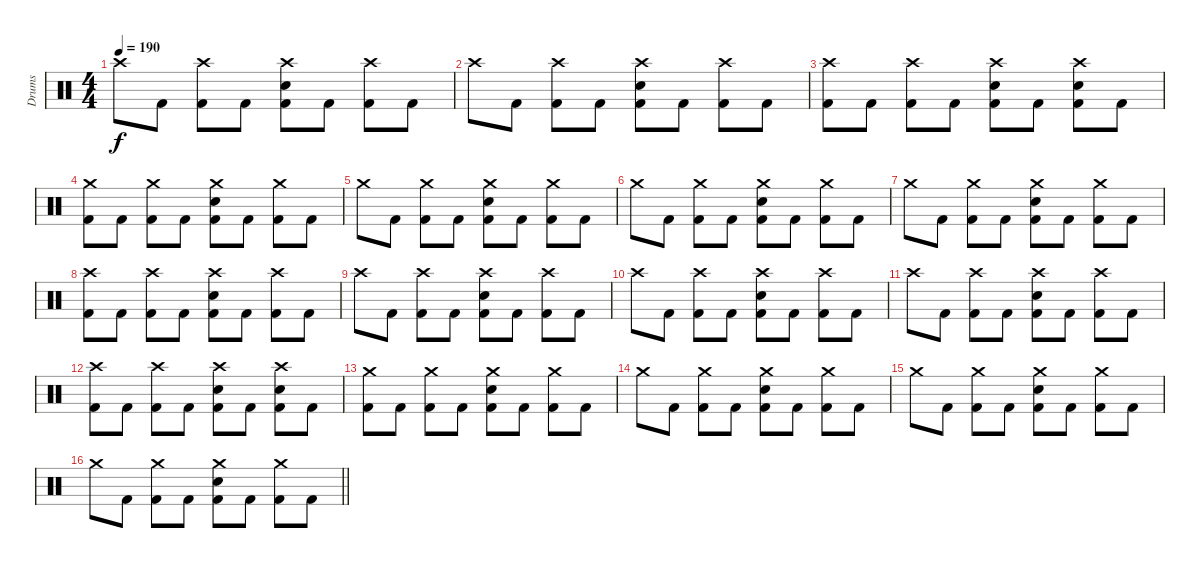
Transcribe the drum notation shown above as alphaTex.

\track ("Drums" "Drums") {instrument percussion}
\staff {score}
\articulation defaults
\ts (4 4)
\tempo 190
\clef neutral
\ks c "Crash high (hit)".8{dy f} "Kick (hit) 2".8
("Crash high (hit)" "Kick (hit) 2").8 "Kick (hit) 2".8 ("Crash high (hit)" "Electric Snare (hit)" "Kick (hit) 2").8 "Kick (hit) 2".8 ("Crash high (hit)" "Kick (hit) 2").8 "Kick (hit) 2".8 |
"Crash high (hit)".8 "Kick (hit) 2".8 ("Crash high (hit)" "Kick (hit) 2").8 "Kick (hit) 2".8 ("Crash high (hit)" "Electric Snare (hit)" "Kick (hit) 2").8 "Kick (hit) 2".8 ("Crash high (hit)" "Kick (hit) 2").8 "Kick (hit) 2".8 |
("Crash high (hit)" "Kick (hit) 2").8 "Kick (hit) 2".8 ("Crash high (hit)" "Kick (hit) 2").8 "Kick (hit) 2".8 ("Crash high (hit)" "Electric Snare (hit)" "Kick (hit) 2").8 "Kick (hit) 2".8 ("Crash high (hit)" "Electric Snare (hit)" "Kick (hit) 2").8 "Kick (hit) 2".8 |
("Crash medium (hit)" "Kick (hit) 2").8 "Kick (hit) 2".8 ("Crash medium (hit)" "Kick (hit) 2").8 "Kick (hit) 2".8 ("Crash medium (hit)" "Electric Snare (hit)" "Kick (hit) 2").8 "Kick (hit) 2".8 ("Crash medium (hit)" "Kick (hit) 2").8 "Kick (hit) 2".8 |
"Crash medium (hit)".8 "Kick (hit) 2".8 ("Crash medium (hit)" "Kick (hit) 2").8 "Kick (hit) 2".8 ("Crash medium (hit)" "Electric Snare (hit)" "Kick (hit) 2").8 "Kick (hit) 2".8 ("Crash medium (hit)" "Kick (hit) 2").8 "Kick (hit) 2".8 |
"Crash medium (hit)".8 "Kick (hit) 2".8 ("Crash medium (hit)" "Kick (hit) 2").8 "Kick (hit) 2".8 ("Crash medium (hit)" "Electric Snare (hit)" "Kick (hit) 2").8 "Kick (hit) 2".8 ("Crash medium (hit)" "Kick (hit) 2").8 "Kick (hit) 2".8 |
"Crash medium (hit)".8 "Kick (hit) 2".8 ("Crash medium (hit)" "Kick (hit) 2").8 "Kick (hit) 2".8 ("Crash medium (hit)" "Electric Snare (hit)" "Kick (hit) 2").8 "Kick (hit) 2".8 ("Crash medium (hit)" "Kick (hit) 2").8 "Kick (hit) 2".8 |
("Crash high (hit)" "Kick (hit) 2").8 "Kick (hit) 2".8 ("Crash high (hit)" "Kick (hit) 2").8 "Kick (hit) 2".8 ("Crash high (hit)" "Electric Snare (hit)" "Kick (hit) 2").8 "Kick (hit) 2".8 ("Crash high (hit)" "Kick (hit) 2").8 "Kick (hit) 2".8 |
"Crash high (hit)".8 "Kick (hit) 2".8 ("Crash high (hit)" "Kick (hit) 2").8 "Kick (hit) 2".8 ("Crash high (hit)" "Electric Snare (hit)" "Kick (hit) 2").8 "Kick (hit) 2".8 ("Crash high (hit)" "Kick (hit) 2").8 "Kick (hit) 2".8 |
"Crash high (hit)".8 "Kick (hit) 2".8 ("Crash high (hit)" "Kick (hit) 2").8 "Kick (hit) 2".8 ("Crash high (hit)" "Electric Snare (hit)" "Kick (hit) 2").8 "Kick (hit) 2".8 ("Crash high (hit)" "Kick (hit) 2").8 "Kick (hit) 2".8 |
"Crash high (hit)".8 "Kick (hit) 2".8 ("Crash high (hit)" "Kick (hit) 2").8 "Kick (hit) 2".8 ("Crash high (hit)" "Electric Snare (hit)" "Kick (hit) 2").8 "Kick (hit) 2".8 ("Crash high (hit)" "Kick (hit) 2").8 "Kick (hit) 2".8 |
("Crash high (hit)" "Kick (hit) 2").8 "Kick (hit) 2".8 ("Crash high (hit)" "Kick (hit) 2").8 "Kick (hit) 2".8 ("Crash high (hit)" "Electric Snare (hit)" "Kick (hit) 2").8 "Kick (hit) 2".8 ("Crash high (hit)" "Electric Snare (hit)" "Kick (hit) 2").8 "Kick (hit) 2".8 |
("Crash medium (hit)" "Kick (hit) 2").8 "Kick (hit) 2".8 ("Crash medium (hit)" "Kick (hit) 2").8 "Kick (hit) 2".8 ("Crash medium (hit)" "Electric Snare (hit)" "Kick (hit) 2").8 "Kick (hit) 2".8 ("Crash medium (hit)" "Kick (hit) 2").8 "Kick (hit) 2".8 |
"Crash medium (hit)".8 "Kick (hit) 2".8 ("Crash medium (hit)" "Kick (hit) 2").8 "Kick (hit) 2".8 ("Crash medium (hit)" "Electric Snare (hit)" "Kick (hit) 2").8 "Kick (hit) 2".8 ("Crash medium (hit)" "Kick (hit) 2").8 "Kick (hit) 2".8 |
"Crash medium (hit)".8 "Kick (hit) 2".8 ("Crash medium (hit)" "Kick (hit) 2").8 "Kick (hit) 2".8 ("Crash medium (hit)" "Electric Snare (hit)" "Kick (hit) 2").8 "Kick (hit) 2".8 ("Crash medium (hit)" "Kick (hit) 2").8 "Kick (hit) 2".8 |
\barLineRight lightlight "Crash medium (hit)".8 "Kick (hit) 2".8
("Crash medium (hit)" "Kick (hit) 2").8 "Kick (hit) 2".8 ("Crash medium (hit)" "Electric Snare (hit)" "Kick (hit) 2").8 "Kick (hit) 2".8 ("Crash medium (hit)" "Kick (hit) 2").8 "Kick (hit) 2".8
